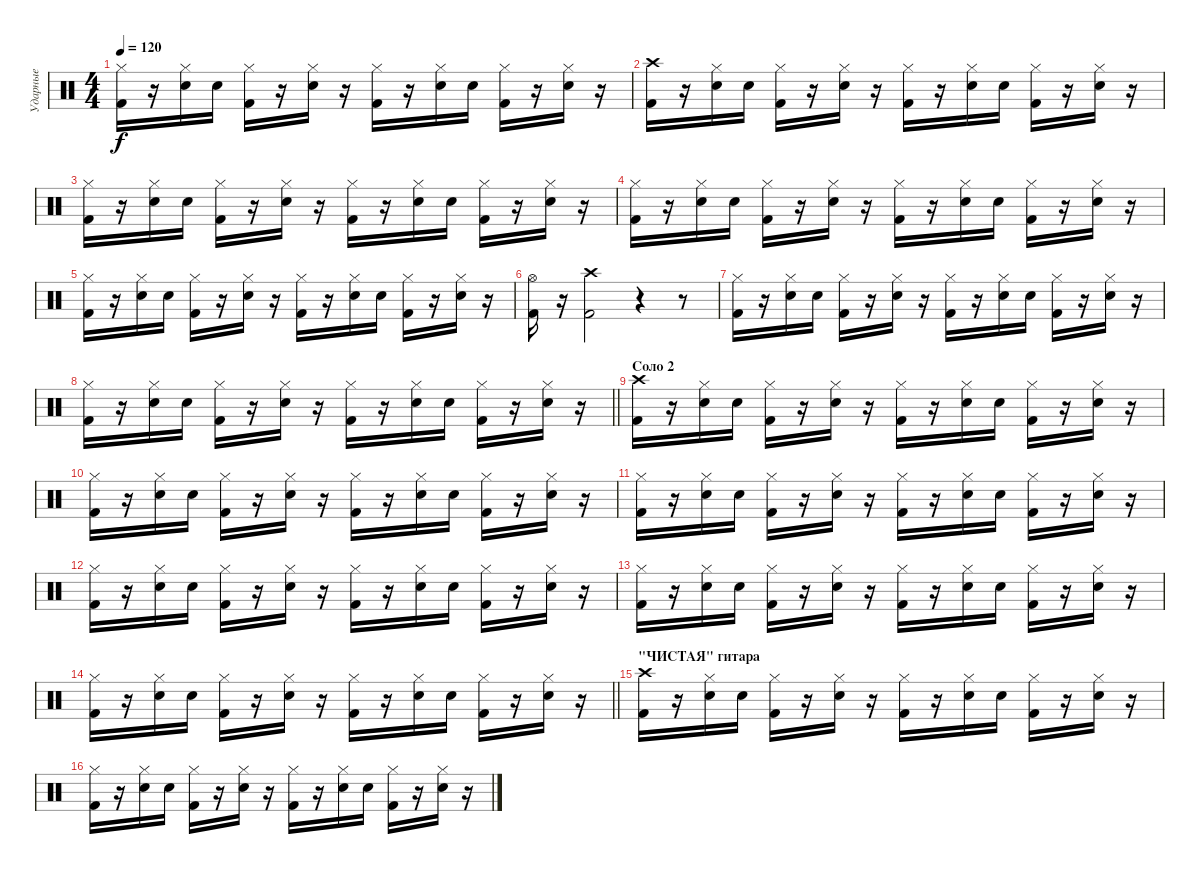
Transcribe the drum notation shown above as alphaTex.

\track ("Ударные" "Ударные") {instrument percussion}
\staff {score}
\articulation defaults
\ts (4 4)
\tempo 120
\clef neutral
\ks c
("Hi-Hat (closed)" "Kick (hit) 2").16{dy f} r.16 ("Hi-Hat (closed)" "Electric Snare (hit)").16 "Electric Snare (hit)".16 ("Hi-Hat (closed)" "Kick (hit) 2").16 r.16 ("Hi-Hat (closed)" "Electric Snare (hit)").16 r.16 ("Hi-Hat (closed)" "Kick (hit) 2").16 r.16 ("Hi-Hat (closed)" "Electric Snare (hit)").16 "Electric Snare (hit)".16 ("Hi-Hat (closed)" "Kick (hit) 2").16 r.16 ("Hi-Hat (closed)" "Electric Snare (hit)").16 r.16 |
("Crash high (hit)" "Kick (hit) 2").16 r.16 ("Hi-Hat (closed)" "Electric Snare (hit)").16 "Electric Snare (hit)".16 ("Hi-Hat (closed)" "Kick (hit) 2").16 r.16 ("Hi-Hat (closed)" "Electric Snare (hit)").16 r.16 ("Hi-Hat (closed)" "Kick (hit) 2").16 r.16 ("Hi-Hat (closed)" "Electric Snare (hit)").16 "Electric Snare (hit)".16 ("Hi-Hat (closed)" "Kick (hit) 2").16 r.16 ("Hi-Hat (closed)" "Electric Snare (hit)").16 r.16 |
("Hi-Hat (closed)" "Kick (hit) 2").16 r.16 ("Hi-Hat (closed)" "Electric Snare (hit)").16 "Electric Snare (hit)".16 ("Hi-Hat (closed)" "Kick (hit) 2").16 r.16 ("Hi-Hat (closed)" "Electric Snare (hit)").16 r.16 ("Hi-Hat (closed)" "Kick (hit) 2").16 r.16 ("Hi-Hat (closed)" "Electric Snare (hit)").16 "Electric Snare (hit)".16 ("Hi-Hat (closed)" "Kick (hit) 2").16 r.16 ("Hi-Hat (closed)" "Electric Snare (hit)").16 r.16 |
("Hi-Hat (closed)" "Kick (hit) 2").16 r.16 ("Hi-Hat (closed)" "Electric Snare (hit)").16 "Electric Snare (hit)".16 ("Hi-Hat (closed)" "Kick (hit) 2").16 r.16 ("Hi-Hat (closed)" "Electric Snare (hit)").16 r.16 ("Hi-Hat (closed)" "Kick (hit) 2").16 r.16 ("Hi-Hat (closed)" "Electric Snare (hit)").16 "Electric Snare (hit)".16 ("Hi-Hat (closed)" "Kick (hit) 2").16 r.16 ("Hi-Hat (closed)" "Electric Snare (hit)").16 r.16 |
("Hi-Hat (closed)" "Kick (hit) 2").16 r.16 ("Hi-Hat (closed)" "Electric Snare (hit)").16 "Electric Snare (hit)".16 ("Hi-Hat (closed)" "Kick (hit) 2").16 r.16 ("Hi-Hat (closed)" "Electric Snare (hit)").16 r.16 ("Hi-Hat (closed)" "Kick (hit) 2").16 r.16 ("Hi-Hat (closed)" "Electric Snare (hit)").16 "Electric Snare (hit)".16 ("Hi-Hat (closed)" "Kick (hit) 2").16 r.16 ("Hi-Hat (closed)" "Electric Snare (hit)").16 r.16 |
("Hi-Hat (open)" "Kick (hit) 2").16 r.16 ("Crash high (hit)" "Kick (hit) 2").2 r.4 r.8 |
("Hi-Hat (closed)" "Kick (hit) 2").16 r.16 ("Hi-Hat (closed)" "Electric Snare (hit)").16 "Electric Snare (hit)".16 ("Hi-Hat (closed)" "Kick (hit) 2").16 r.16 ("Hi-Hat (closed)" "Electric Snare (hit)").16 r.16 ("Hi-Hat (closed)" "Kick (hit) 2").16 r.16 ("Hi-Hat (closed)" "Electric Snare (hit)").16 "Electric Snare (hit)".16 ("Hi-Hat (closed)" "Kick (hit) 2").16 r.16 ("Hi-Hat (closed)" "Electric Snare (hit)").16 r.16 |
\barLineRight lightlight
("Hi-Hat (closed)" "Kick (hit) 2").16 r.16 ("Hi-Hat (closed)" "Electric Snare (hit)").16 "Electric Snare (hit)".16 ("Hi-Hat (closed)" "Kick (hit) 2").16 r.16 ("Hi-Hat (closed)" "Electric Snare (hit)").16 r.16 ("Hi-Hat (closed)" "Kick (hit) 2").16 r.16 ("Hi-Hat (closed)" "Electric Snare (hit)").16 "Electric Snare (hit)".16 ("Hi-Hat (closed)" "Kick (hit) 2").16 r.16 ("Hi-Hat (closed)" "Electric Snare (hit)").16 r.16 |
\section ("" "Соло 2")
("Crash high (hit)" "Kick (hit) 2").16 r.16 ("Hi-Hat (closed)" "Electric Snare (hit)").16 "Electric Snare (hit)".16 ("Hi-Hat (closed)" "Kick (hit) 2").16 r.16 ("Hi-Hat (closed)" "Electric Snare (hit)").16 r.16 ("Hi-Hat (closed)" "Kick (hit) 2").16 r.16 ("Hi-Hat (closed)" "Electric Snare (hit)").16 "Electric Snare (hit)".16 ("Hi-Hat (closed)" "Kick (hit) 2").16 r.16 ("Hi-Hat (closed)" "Electric Snare (hit)").16 r.16 |
("Hi-Hat (closed)" "Kick (hit) 2").16 r.16 ("Hi-Hat (closed)" "Electric Snare (hit)").16 "Electric Snare (hit)".16 ("Hi-Hat (closed)" "Kick (hit) 2").16 r.16 ("Hi-Hat (closed)" "Electric Snare (hit)").16 r.16 ("Hi-Hat (closed)" "Kick (hit) 2").16 r.16 ("Hi-Hat (closed)" "Electric Snare (hit)").16 "Electric Snare (hit)".16 ("Hi-Hat (closed)" "Kick (hit) 2").16 r.16 ("Hi-Hat (closed)" "Electric Snare (hit)").16 r.16 |
("Hi-Hat (closed)" "Kick (hit) 2").16 r.16 ("Hi-Hat (closed)" "Electric Snare (hit)").16 "Electric Snare (hit)".16 ("Hi-Hat (closed)" "Kick (hit) 2").16 r.16 ("Hi-Hat (closed)" "Electric Snare (hit)").16 r.16 ("Hi-Hat (closed)" "Kick (hit) 2").16 r.16 ("Hi-Hat (closed)" "Electric Snare (hit)").16 "Electric Snare (hit)".16 ("Hi-Hat (closed)" "Kick (hit) 2").16 r.16 ("Hi-Hat (closed)" "Electric Snare (hit)").16 r.16 |
("Hi-Hat (closed)" "Kick (hit) 2").16 r.16 ("Hi-Hat (closed)" "Electric Snare (hit)").16 "Electric Snare (hit)".16 ("Hi-Hat (closed)" "Kick (hit) 2").16 r.16 ("Hi-Hat (closed)" "Electric Snare (hit)").16 r.16 ("Hi-Hat (closed)" "Kick (hit) 2").16 r.16 ("Hi-Hat (closed)" "Electric Snare (hit)").16 "Electric Snare (hit)".16 ("Hi-Hat (closed)" "Kick (hit) 2").16 r.16 ("Hi-Hat (closed)" "Electric Snare (hit)").16 r.16 |
("Hi-Hat (closed)" "Kick (hit) 2").16 r.16 ("Hi-Hat (closed)" "Electric Snare (hit)").16 "Electric Snare (hit)".16 ("Hi-Hat (closed)" "Kick (hit) 2").16 r.16 ("Hi-Hat (closed)" "Electric Snare (hit)").16 r.16 ("Hi-Hat (closed)" "Kick (hit) 2").16 r.16 ("Hi-Hat (closed)" "Electric Snare (hit)").16 "Electric Snare (hit)".16 ("Hi-Hat (closed)" "Kick (hit) 2").16 r.16 ("Hi-Hat (closed)" "Electric Snare (hit)").16 r.16 |
\barLineRight lightlight
("Hi-Hat (closed)" "Kick (hit) 2").16 r.16 ("Hi-Hat (closed)" "Electric Snare (hit)").16 "Electric Snare (hit)".16 ("Hi-Hat (closed)" "Kick (hit) 2").16 r.16 ("Hi-Hat (closed)" "Electric Snare (hit)").16 r.16 ("Hi-Hat (closed)" "Kick (hit) 2").16 r.16 ("Hi-Hat (closed)" "Electric Snare (hit)").16 "Electric Snare (hit)".16 ("Hi-Hat (closed)" "Kick (hit) 2").16 r.16 ("Hi-Hat (closed)" "Electric Snare (hit)").16 r.16 |
\section ("" "\"ЧИСТАЯ\" гитара")
("Crash high (hit)" "Kick (hit) 2").16 r.16 ("Hi-Hat (closed)" "Electric Snare (hit)").16 "Electric Snare (hit)".16 ("Hi-Hat (closed)" "Kick (hit) 2").16 r.16 ("Hi-Hat (closed)" "Electric Snare (hit)").16 r.16 ("Hi-Hat (closed)" "Kick (hit) 2").16 r.16 ("Hi-Hat (closed)" "Electric Snare (hit)").16 "Electric Snare (hit)".16 ("Hi-Hat (closed)" "Kick (hit) 2").16 r.16 ("Hi-Hat (closed)" "Electric Snare (hit)").16 r.16 |
("Hi-Hat (closed)" "Kick (hit) 2").16 r.16 ("Hi-Hat (closed)" "Electric Snare (hit)").16 "Electric Snare (hit)".16 ("Hi-Hat (closed)" "Kick (hit) 2").16 r.16 ("Hi-Hat (closed)" "Electric Snare (hit)").16 r.16 ("Hi-Hat (closed)" "Kick (hit) 2").16 r.16 ("Hi-Hat (closed)" "Electric Snare (hit)").16 "Electric Snare (hit)".16 ("Hi-Hat (closed)" "Kick (hit) 2").16 r.16 ("Hi-Hat (closed)" "Electric Snare (hit)").16 r.16
